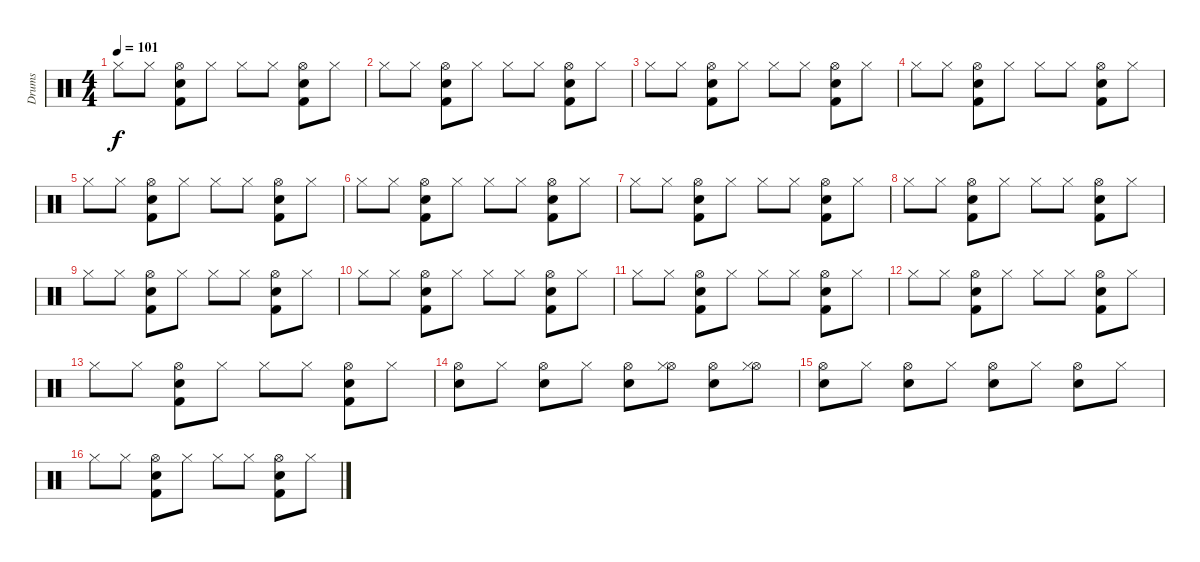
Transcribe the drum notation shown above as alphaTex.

\track ("Drums" "Drums") {instrument percussion}
\staff {score}
\articulation defaults
\ts (4 4)
\tempo 101
\clef neutral
\ks c "Hi-Hat (closed)".8{dy f} "Hi-Hat (closed)".8
("Snare (hit) 2" "Hi-Hat (open)" "Kick (hit) 2").8 "Hi-Hat (closed)".8 "Hi-Hat (closed)".8 "Hi-Hat (closed)".8 ("Snare (hit) 2" "Hi-Hat (open)" "Kick (hit) 2").8 "Hi-Hat (closed)".8 |
"Hi-Hat (closed)".8 "Hi-Hat (closed)".8 ("Snare (hit) 2" "Hi-Hat (open)" "Kick (hit) 2").8 "Hi-Hat (closed)".8 "Hi-Hat (closed)".8 "Hi-Hat (closed)".8 ("Snare (hit) 2" "Hi-Hat (open)" "Kick (hit) 2").8 "Hi-Hat (closed)".8 |
"Hi-Hat (closed)".8 "Hi-Hat (closed)".8 ("Snare (hit) 2" "Hi-Hat (open)" "Kick (hit) 2").8 "Hi-Hat (closed)".8 "Hi-Hat (closed)".8 "Hi-Hat (closed)".8 ("Snare (hit) 2" "Hi-Hat (open)" "Kick (hit) 2").8 "Hi-Hat (closed)".8 |
"Hi-Hat (closed)".8 "Hi-Hat (closed)".8 ("Snare (hit) 2" "Hi-Hat (open)" "Kick (hit) 2").8 "Hi-Hat (closed)".8 "Hi-Hat (closed)".8 "Hi-Hat (closed)".8 ("Snare (hit) 2" "Hi-Hat (open)" "Kick (hit) 2").8 "Hi-Hat (closed)".8 |
"Hi-Hat (closed)".8 "Hi-Hat (closed)".8 ("Snare (hit) 2" "Hi-Hat (open)" "Kick (hit) 2").8 "Hi-Hat (closed)".8 "Hi-Hat (closed)".8 "Hi-Hat (closed)".8 ("Snare (hit) 2" "Hi-Hat (open)" "Kick (hit) 2").8 "Hi-Hat (closed)".8 |
"Hi-Hat (closed)".8 "Hi-Hat (closed)".8 ("Snare (hit) 2" "Hi-Hat (open)" "Kick (hit) 2").8 "Hi-Hat (closed)".8 "Hi-Hat (closed)".8 "Hi-Hat (closed)".8 ("Snare (hit) 2" "Hi-Hat (open)" "Kick (hit) 2").8 "Hi-Hat (closed)".8 |
"Hi-Hat (closed)".8 "Hi-Hat (closed)".8 ("Snare (hit) 2" "Hi-Hat (open)" "Kick (hit) 2").8 "Hi-Hat (closed)".8 "Hi-Hat (closed)".8 "Hi-Hat (closed)".8 ("Snare (hit) 2" "Hi-Hat (open)" "Kick (hit) 2").8 "Hi-Hat (closed)".8 |
"Hi-Hat (closed)".8 "Hi-Hat (closed)".8 ("Snare (hit) 2" "Hi-Hat (open)" "Kick (hit) 2").8 "Hi-Hat (closed)".8 "Hi-Hat (closed)".8 "Hi-Hat (closed)".8 ("Snare (hit) 2" "Hi-Hat (open)" "Kick (hit) 2").8 "Hi-Hat (closed)".8 |
"Hi-Hat (closed)".8 "Hi-Hat (closed)".8 ("Snare (hit) 2" "Hi-Hat (open)" "Kick (hit) 2").8 "Hi-Hat (closed)".8 "Hi-Hat (closed)".8 "Hi-Hat (closed)".8 ("Snare (hit) 2" "Hi-Hat (open)" "Kick (hit) 2").8 "Hi-Hat (closed)".8 |
"Hi-Hat (closed)".8 "Hi-Hat (closed)".8 ("Snare (hit) 2" "Hi-Hat (open)" "Kick (hit) 2").8 "Hi-Hat (closed)".8 "Hi-Hat (closed)".8 "Hi-Hat (closed)".8 ("Snare (hit) 2" "Hi-Hat (open)" "Kick (hit) 2").8 "Hi-Hat (closed)".8 |
"Hi-Hat (closed)".8 "Hi-Hat (closed)".8 ("Snare (hit) 2" "Hi-Hat (open)" "Kick (hit) 2").8 "Hi-Hat (closed)".8 "Hi-Hat (closed)".8 "Hi-Hat (closed)".8 ("Snare (hit) 2" "Hi-Hat (open)" "Kick (hit) 2").8 "Hi-Hat (closed)".8 |
"Hi-Hat (closed)".8 "Hi-Hat (closed)".8 ("Snare (hit) 2" "Hi-Hat (open)" "Kick (hit) 2").8 "Hi-Hat (closed)".8 "Hi-Hat (closed)".8 "Hi-Hat (closed)".8 ("Snare (hit) 2" "Hi-Hat (open)" "Kick (hit) 2").8 "Hi-Hat (closed)".8 |
"Hi-Hat (closed)".8 "Hi-Hat (closed)".8 ("Snare (hit) 2" "Hi-Hat (open)" "Kick (hit) 2").8 "Hi-Hat (closed)".8 "Hi-Hat (closed)".8 "Hi-Hat (closed)".8 ("Snare (hit) 2" "Hi-Hat (open)" "Kick (hit) 2").8 "Hi-Hat (closed)".8 |
("Hi-Hat (open)" "Snare (hit) 2").8 "Hi-Hat (closed)".8 ("Hi-Hat (open)" "Snare (hit) 2").8 "Hi-Hat (closed)".8 ("Hi-Hat (open)" "Snare (hit) 2").8 ("Hi-Hat (open)" "Hi-Hat (closed)").8 ("Hi-Hat (open)" "Snare (hit) 2").8 ("Hi-Hat (open)" "Hi-Hat (closed)").8 |
("Hi-Hat (open)" "Snare (hit) 2").8 "Hi-Hat (closed)".8 ("Hi-Hat (open)" "Snare (hit) 2").8 "Hi-Hat (closed)".8 ("Hi-Hat (open)" "Snare (hit) 2").8 "Hi-Hat (closed)".8 ("Hi-Hat (open)" "Snare (hit) 2").8 "Hi-Hat (closed)".8 |
"Hi-Hat (closed)".8 "Hi-Hat (closed)".8 ("Snare (hit) 2" "Hi-Hat (open)" "Kick (hit) 2").8 "Hi-Hat (closed)".8 "Hi-Hat (closed)".8 "Hi-Hat (closed)".8 ("Snare (hit) 2" "Hi-Hat (open)" "Kick (hit) 2").8 "Hi-Hat (closed)".8
